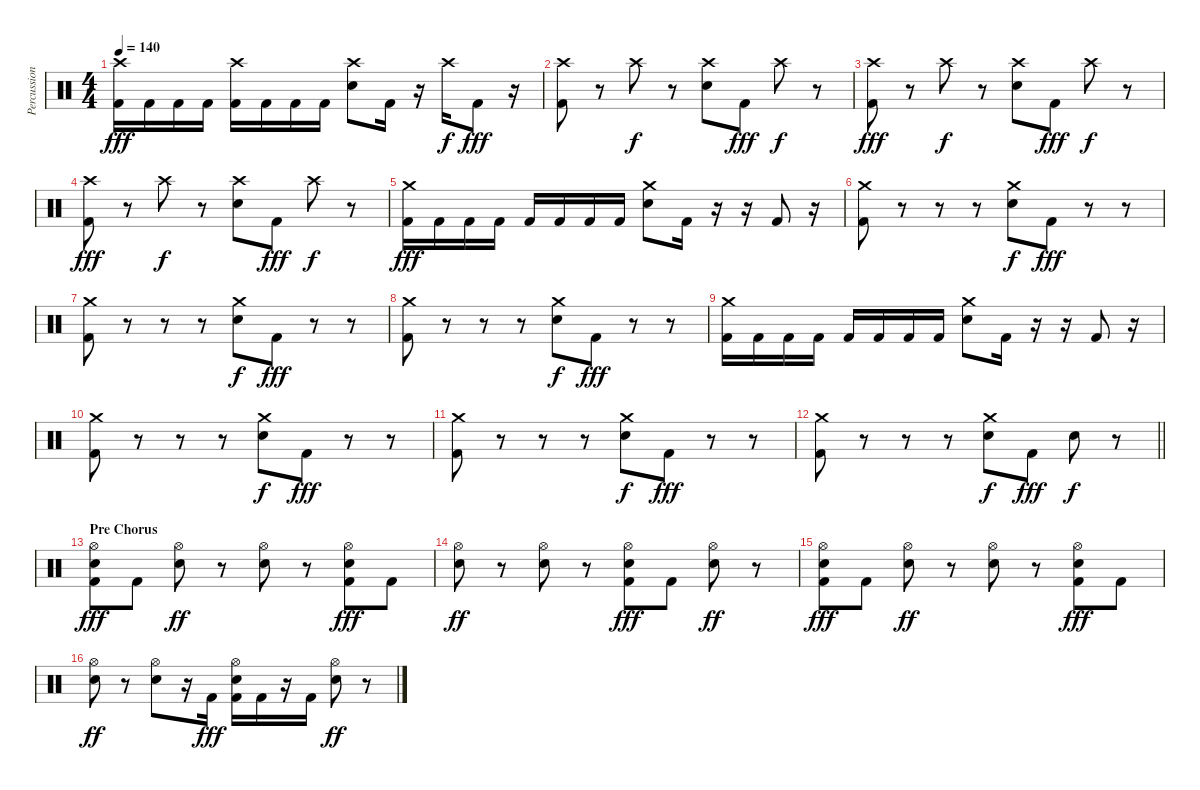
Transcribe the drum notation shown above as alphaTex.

\track ("Percussion" "Percussion") {instrument percussion}
\staff {score}
\articulation defaults
\ts (4 4)
\tempo 140
\clef neutral
\ks c
("Crash high (hit)" "Kick (hit) 2").16{dy fff} "Kick (hit) 2".16 "Kick (hit) 2".16 "Kick (hit) 2".16 ("Crash high (hit)" "Kick (hit) 2").16 "Kick (hit) 2".16 "Kick (hit) 2".16 "Kick (hit) 2".16 ("Crash high (hit)" "Electric Snare (hit)").8 "Kick (hit) 2".16 r.16 "Crash high (hit)".16{dy f} "Kick (hit) 2".8{dy fff} r.16 |
("Crash high (hit)" "Kick (hit) 2").8 r.8 "Crash high (hit)".8{dy f} r.8 ("Crash high (hit)" "Electric Snare (hit)").8 "Kick (hit) 2".8{dy fff} "Crash high (hit)".8{dy f} r.8 |
("Crash high (hit)" "Kick (hit) 2").8{dy fff} r.8 "Crash high (hit)".8{dy f} r.8 ("Crash high (hit)" "Electric Snare (hit)").8 "Kick (hit) 2".8{dy fff} "Crash high (hit)".8{dy f} r.8 |
("Crash high (hit)" "Kick (hit) 2").8{dy fff} r.8 "Crash high (hit)".8{dy f} r.8 ("Crash high (hit)" "Electric Snare (hit)").8 "Kick (hit) 2".8{dy fff} "Crash high (hit)".8{dy f} r.8 |
("Crash medium (hit)" "Kick (hit) 2").16{dy fff} "Kick (hit) 2".16 "Kick (hit) 2".16 "Kick (hit) 2".16 "Kick (hit) 2".16 "Kick (hit) 2".16 "Kick (hit) 2".16 "Kick (hit) 2".16 ("Crash medium (hit)" "Electric Snare (hit)").8 "Kick (hit) 2".16 r.16 r.16 "Kick (hit) 2".8 r.16 |
("Crash medium (hit)" "Kick (hit) 2").8 r.8 r.8 r.8 ("Crash medium (hit)" "Electric Snare (hit)").8{dy f} "Kick (hit) 2".8{dy fff} r.8 r.8 |
("Crash medium (hit)" "Kick (hit) 2").8 r.8 r.8 r.8 ("Crash medium (hit)" "Electric Snare (hit)").8{dy f} "Kick (hit) 2".8{dy fff} r.8 r.8 |
("Crash medium (hit)" "Kick (hit) 2").8 r.8 r.8 r.8 ("Crash medium (hit)" "Electric Snare (hit)").8{dy f} "Kick (hit) 2".8{dy fff} r.8 r.8 |
("Crash medium (hit)" "Kick (hit) 2").16 "Kick (hit) 2".16 "Kick (hit) 2".16 "Kick (hit) 2".16 "Kick (hit) 2".16 "Kick (hit) 2".16 "Kick (hit) 2".16 "Kick (hit) 2".16 ("Crash medium (hit)" "Electric Snare (hit)").8 "Kick (hit) 2".16 r.16 r.16 "Kick (hit) 2".8 r.16 |
("Crash medium (hit)" "Kick (hit) 2").8 r.8 r.8 r.8 ("Crash medium (hit)" "Electric Snare (hit)").8{dy f} "Kick (hit) 2".8{dy fff} r.8 r.8 |
("Crash medium (hit)" "Kick (hit) 2").8 r.8 r.8 r.8 ("Crash medium (hit)" "Electric Snare (hit)").8{dy f} "Kick (hit) 2".8{dy fff} r.8 r.8 |
\barLineRight lightlight
("Crash medium (hit)" "Kick (hit) 2").8 r.8 r.8 r.8 ("Crash medium (hit)" "Electric Snare (hit)").8{dy f} "Kick (hit) 2".8{dy fff} "Electric Snare (hit)".8{dy f} r.8 |
\section ("" "Pre Chorus")
("Hi-Hat (open)" "Electric Snare (hit)" "Kick (hit) 2").8{dy fff} "Kick (hit) 2".8 ("Hi-Hat (open)" "Electric Snare (hit)").8{dy ff} r.8 ("Hi-Hat (open)" "Electric Snare (hit)").8 r.8 ("Hi-Hat (open)" "Electric Snare (hit)" "Kick (hit) 2").8{dy fff} "Kick (hit) 2".8 |
("Hi-Hat (open)" "Electric Snare (hit)").8{dy ff} r.8 ("Hi-Hat (open)" "Electric Snare (hit)").8 r.8 ("Hi-Hat (open)" "Electric Snare (hit)" "Kick (hit) 2").8{dy fff} "Kick (hit) 2".8 ("Hi-Hat (open)" "Electric Snare (hit)").8{dy ff} r.8 |
("Hi-Hat (open)" "Electric Snare (hit)" "Kick (hit) 2").8{dy fff} "Kick (hit) 2".8 ("Hi-Hat (open)" "Electric Snare (hit)").8{dy ff} r.8 ("Hi-Hat (open)" "Electric Snare (hit)").8 r.8 ("Hi-Hat (open)" "Electric Snare (hit)" "Kick (hit) 2").8{dy fff} "Kick (hit) 2".8 |
("Hi-Hat (open)" "Electric Snare (hit)").8{dy ff} r.8 ("Hi-Hat (open)" "Electric Snare (hit)").8 r.16 "Kick (hit) 2".16{dy fff} ("Hi-Hat (open)" "Electric Snare (hit)" "Kick (hit) 2").16 "Kick (hit) 2".16 r.16 "Kick (hit) 2".16 ("Hi-Hat (open)" "Electric Snare (hit)").8{dy ff} r.8
